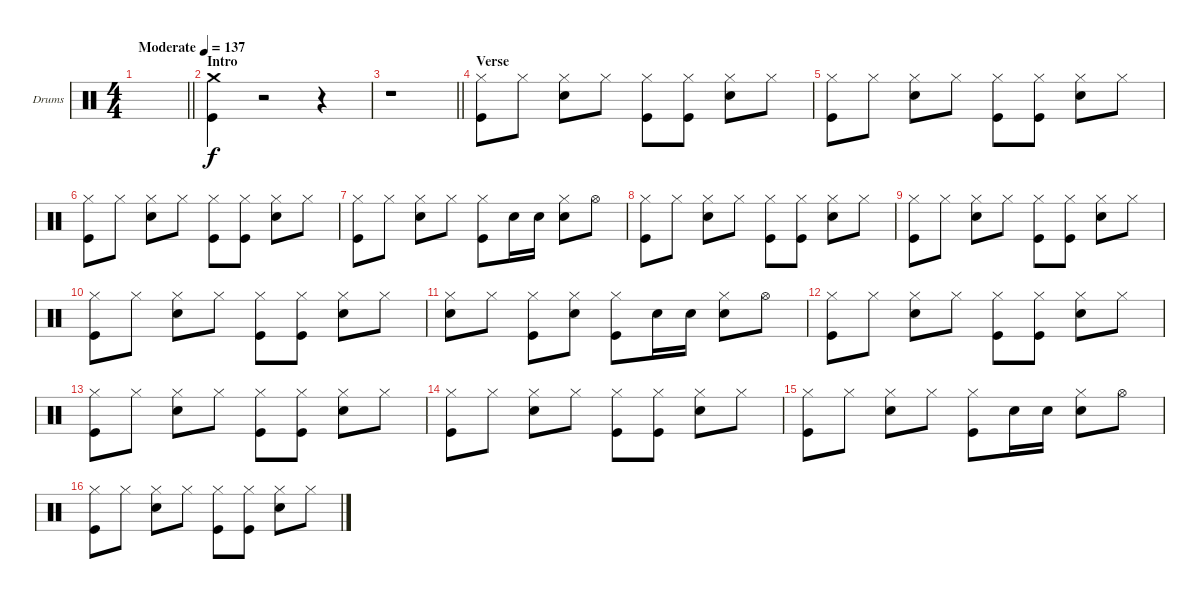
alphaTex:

\bracketExtendMode groupsimilarinstruments
\firstSystemTrackNameOrientation horizontal
\otherSystemsTrackNameOrientation horizontal
\track ("Drumkit" "Drums") {instrument percussion}
\staff {score}
\articulation defaults
\ts (4 4)
\beaming (8 2 2 2 2)
\tempo (137 "Moderate")
\clef neutral
\scale
0.474178
\barLineRight lightlight
\ks c
|
\section ("" "Intro")
\scale
0.262911 ("Kick (hit)" "Crash medium (hit)").4 r.2 r.4 |
\scale
0.262911
\barLineRight lightlight
r.1 |
\section ("" "Verse")
\scale
0.333333 ("Kick (hit)" "Hi-Hat (closed)").8 "Hi-Hat (closed)".8 ("Snare (hit) 2" "Hi-Hat (closed)").8 "Hi-Hat (closed)".8 ("Hi-Hat (closed)" "Kick (hit)").8 ("Hi-Hat (closed)" "Kick (hit)").8 ("Hi-Hat (closed)" "Snare (hit) 2").8 "Hi-Hat (closed)".8 |
\scale
0.333333 ("Kick (hit)" "Hi-Hat (closed)").8 "Hi-Hat (closed)".8 ("Snare (hit) 2" "Hi-Hat (closed)").8 "Hi-Hat (closed)".8 ("Hi-Hat (closed)" "Kick (hit)").8 ("Hi-Hat (closed)" "Kick (hit)").8 ("Hi-Hat (closed)" "Snare (hit) 2").8 "Hi-Hat (closed)".8 |
\scale
0.333333 ("Kick (hit)" "Hi-Hat (closed)").8 "Hi-Hat (closed)".8 ("Snare (hit) 2" "Hi-Hat (closed)").8 "Hi-Hat (closed)".8 ("Hi-Hat (closed)" "Kick (hit)").8 ("Hi-Hat (closed)" "Kick (hit)").8 ("Hi-Hat (closed)" "Snare (hit) 2").8 "Hi-Hat (closed)".8 |
\scale
0.333333 ("Kick (hit)" "Hi-Hat (closed)").8 "Hi-Hat (closed)".8 ("Snare (hit) 2" "Hi-Hat (closed)").8 "Hi-Hat (closed)".8 ("Hi-Hat (closed)" "Kick (hit)").8 "Snare (hit) 2".16 "Snare (hit) 2".16 ("Snare (hit) 2" "Hi-Hat (closed)").8 "Hi-Hat (open)".8 |
\scale
0.333333 ("Kick (hit)" "Hi-Hat (closed)").8 "Hi-Hat (closed)".8 ("Snare (hit) 2" "Hi-Hat (closed)").8 "Hi-Hat (closed)".8 ("Hi-Hat (closed)" "Kick (hit)").8 ("Hi-Hat (closed)" "Kick (hit)").8 ("Hi-Hat (closed)" "Snare (hit) 2").8 "Hi-Hat (closed)".8 |
\scale
0.333333 ("Kick (hit)" "Hi-Hat (closed)").8 "Hi-Hat (closed)".8 ("Snare (hit) 2" "Hi-Hat (closed)").8 "Hi-Hat (closed)".8 ("Hi-Hat (closed)" "Kick (hit)").8 ("Hi-Hat (closed)" "Kick (hit)").8 ("Hi-Hat (closed)" "Snare (hit) 2").8 "Hi-Hat (closed)".8 |
\scale
0.333333 ("Kick (hit)" "Hi-Hat (closed)").8 "Hi-Hat (closed)".8 ("Snare (hit) 2" "Hi-Hat (closed)").8 "Hi-Hat (closed)".8 ("Hi-Hat (closed)" "Kick (hit)").8 ("Hi-Hat (closed)" "Kick (hit)").8 ("Hi-Hat (closed)" "Snare (hit) 2").8 "Hi-Hat (closed)".8 |
\scale
0.333333 ("Snare (hit) 2" "Hi-Hat (closed)").8 "Hi-Hat (closed)".8 ("Kick (hit)" "Hi-Hat (closed)").8 ("Snare (hit) 2" "Hi-Hat (closed)").8 ("Kick (hit)" "Hi-Hat (closed)").8 "Snare (hit) 2".16 "Snare (hit) 2".16 ("Snare (hit) 2" "Hi-Hat (closed)").8 "Hi-Hat (open)".8 |
\scale
0.333333 ("Kick (hit)" "Hi-Hat (closed)").8 "Hi-Hat (closed)".8 ("Snare (hit) 2" "Hi-Hat (closed)").8 "Hi-Hat (closed)".8 ("Hi-Hat (closed)" "Kick (hit)").8 ("Hi-Hat (closed)" "Kick (hit)").8 ("Hi-Hat (closed)" "Snare (hit) 2").8 "Hi-Hat (closed)".8 |
\scale
0.333333 ("Kick (hit)" "Hi-Hat (closed)").8 "Hi-Hat (closed)".8 ("Snare (hit) 2" "Hi-Hat (closed)").8 "Hi-Hat (closed)".8 ("Hi-Hat (closed)" "Kick (hit)").8 ("Hi-Hat (closed)" "Kick (hit)").8 ("Hi-Hat (closed)" "Snare (hit) 2").8 "Hi-Hat (closed)".8 |
\scale
0.333333 ("Kick (hit)" "Hi-Hat (closed)").8 "Hi-Hat (closed)".8 ("Snare (hit) 2" "Hi-Hat (closed)").8 "Hi-Hat (closed)".8 ("Hi-Hat (closed)" "Kick (hit)").8 ("Hi-Hat (closed)" "Kick (hit)").8 ("Hi-Hat (closed)" "Snare (hit) 2").8 "Hi-Hat (closed)".8 |
\scale
0.333333 ("Kick (hit)" "Hi-Hat (closed)").8 "Hi-Hat (closed)".8 ("Snare (hit) 2" "Hi-Hat (closed)").8 "Hi-Hat (closed)".8 ("Hi-Hat (closed)" "Kick (hit)").8 "Snare (hit) 2".16 "Snare (hit) 2".16 ("Snare (hit) 2" "Hi-Hat (closed)").8 "Hi-Hat (open)".8 |
\scale
0.333333 ("Kick (hit)" "Hi-Hat (closed)").8 "Hi-Hat (closed)".8 ("Snare (hit) 2" "Hi-Hat (closed)").8 "Hi-Hat (closed)".8 ("Hi-Hat (closed)" "Kick (hit)").8 ("Hi-Hat (closed)" "Kick (hit)").8 ("Hi-Hat (closed)" "Snare (hit) 2").8 "Hi-Hat (closed)".8
